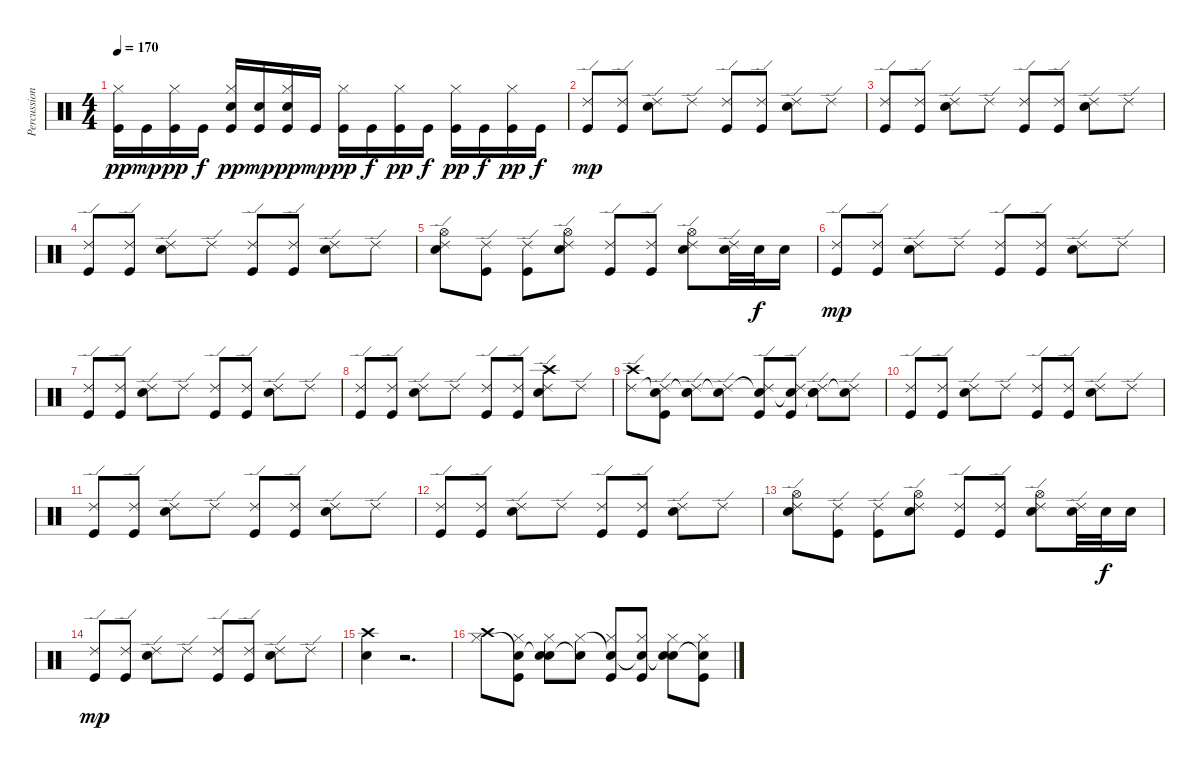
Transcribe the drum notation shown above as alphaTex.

\track ("Percussion" "Percussion") {instrument percussion}
\staff {score}
\articulation defaults
\ts (4 4)
\tempo 170
\clef neutral
\ks c
("Kick (hit)" "Hi-Hat (closed)").16{dy pp} "Kick (hit)".16{dy mp} ("Kick (hit)" "Hi-Hat (closed)").16{dy pp} "Kick (hit)".16{dy f} ("Kick (hit)" "Electric Snare (hit)" "Hi-Hat (closed)").16{dy pp} ("Kick (hit)" "Electric Snare (hit)").16{dy mp} ("Kick (hit)" "Electric Snare (hit)" "Hi-Hat (closed)").16{dy pp} "Kick (hit)".16{dy mp} ("Kick (hit)" "Hi-Hat (closed)").16{dy pp} "Kick (hit)".16{dy f} ("Kick (hit)" "Hi-Hat (closed)").16{dy pp} "Kick (hit)".16{dy f} ("Kick (hit)" "Hi-Hat (closed)").16{dy pp} "Kick (hit)".16{dy f} ("Kick (hit)" "Hi-Hat (closed)").16{dy pp} "Kick (hit)".16{dy f} |
("Kick (hit)" "Ride (edge) 2").8{dy mp} ("Kick (hit)" "Ride (edge) 2").8 ("Electric Snare (hit)" "Ride (edge) 2").8 "Ride (edge) 2".8 ("Kick (hit)" "Ride (edge) 2").8 ("Kick (hit)" "Ride (edge) 2").8 ("Electric Snare (hit)" "Ride (edge) 2").8 "Ride (edge) 2".8 |
("Kick (hit)" "Ride (edge) 2").8 ("Kick (hit)" "Ride (edge) 2").8 ("Electric Snare (hit)" "Ride (edge) 2").8 "Ride (edge) 2".8 ("Kick (hit)" "Ride (edge) 2").8 ("Kick (hit)" "Ride (edge) 2").8 ("Electric Snare (hit)" "Ride (edge) 2").8 "Ride (edge) 2".8 |
("Kick (hit)" "Ride (edge) 2").8 ("Kick (hit)" "Ride (edge) 2").8 ("Electric Snare (hit)" "Ride (edge) 2").8 "Ride (edge) 2".8 ("Kick (hit)" "Ride (edge) 2").8 ("Kick (hit)" "Ride (edge) 2").8 ("Electric Snare (hit)" "Ride (edge) 2").8 "Ride (edge) 2".8 |
("Hi-Hat (open)" "Electric Snare (hit)" "Ride (edge) 2").8 ("Kick (hit)" "Ride (edge) 2").8 ("Kick (hit)" "Ride (edge) 2").8 ("Hi-Hat (open)" "Electric Snare (hit)" "Ride (edge) 2").8 ("Kick (hit)" "Ride (edge) 2").8 ("Kick (hit)" "Ride (edge) 2").8 ("Hi-Hat (open)" "Electric Snare (hit)" "Ride (edge) 2").8 ("Electric Snare (hit)" "Ride (edge) 2").32 "Electric Snare (hit)".32{dy f} "Electric Snare (hit)".16 |
("Kick (hit)" "Ride (edge) 2").8{dy mp} ("Kick (hit)" "Ride (edge) 2").8 ("Electric Snare (hit)" "Ride (edge) 2").8 "Ride (edge) 2".8 ("Kick (hit)" "Ride (edge) 2").8 ("Kick (hit)" "Ride (edge) 2").8 ("Electric Snare (hit)" "Ride (edge) 2").8 "Ride (edge) 2".8 |
("Kick (hit)" "Ride (edge) 2").8 ("Kick (hit)" "Ride (edge) 2").8 ("Electric Snare (hit)" "Ride (edge) 2").8 "Ride (edge) 2".8 ("Kick (hit)" "Ride (edge) 2").8 ("Kick (hit)" "Ride (edge) 2").8 ("Electric Snare (hit)" "Ride (edge) 2").8 "Ride (edge) 2".8 |
("Kick (hit)" "Ride (edge) 2").8 ("Kick (hit)" "Ride (edge) 2").8 ("Electric Snare (hit)" "Ride (edge) 2").8 "Ride (edge) 2".8 ("Kick (hit)" "Ride (edge) 2").8 ("Kick (hit)" "Ride (edge) 2").8 ("Electric Snare (hit)" "Crash high (hit)" "Ride (edge) 2").8 "Ride (edge) 2".8 |
("Crash high (hit)" "Ride (edge) 2").8 ("Kick (hit)" "Snare (hit)"{t} "Ride (edge) 2").8 ("Electric Snare (hit)" "Snare (hit)"{t} "Ride (edge) 2").8 ("Snare (hit)"{t} "Ride (edge) 2").8 ("Kick (hit)" "Snare (hit)"{t} "Ride (edge) 2").8 ("Kick (hit)" "Snare (hit)"{t} "Ride (edge) 2").8 ("Electric Snare (hit)" "Snare (hit)"{t} "Ride (edge) 2").8 ("Snare (hit)"{t} "Ride (edge) 2").8 |
("Kick (hit)" "Ride (edge) 2").8 ("Kick (hit)" "Ride (edge) 2").8 ("Electric Snare (hit)" "Ride (edge) 2").8 "Ride (edge) 2".8 ("Kick (hit)" "Ride (edge) 2").8 ("Kick (hit)" "Ride (edge) 2").8 ("Electric Snare (hit)" "Ride (edge) 2").8 "Ride (edge) 2".8 |
("Kick (hit)" "Ride (edge) 2").8 ("Kick (hit)" "Ride (edge) 2").8 ("Electric Snare (hit)" "Ride (edge) 2").8 "Ride (edge) 2".8 ("Kick (hit)" "Ride (edge) 2").8 ("Kick (hit)" "Ride (edge) 2").8 ("Electric Snare (hit)" "Ride (edge) 2").8 "Ride (edge) 2".8 |
("Kick (hit)" "Ride (edge) 2").8 ("Kick (hit)" "Ride (edge) 2").8 ("Electric Snare (hit)" "Ride (edge) 2").8 "Ride (edge) 2".8 ("Kick (hit)" "Ride (edge) 2").8 ("Kick (hit)" "Ride (edge) 2").8 ("Electric Snare (hit)" "Ride (edge) 2").8 "Ride (edge) 2".8 |
("Hi-Hat (open)" "Electric Snare (hit)" "Ride (edge) 2").8 ("Kick (hit)" "Ride (edge) 2").8 ("Kick (hit)" "Ride (edge) 2").8 ("Hi-Hat (open)" "Electric Snare (hit)" "Ride (edge) 2").8 ("Kick (hit)" "Ride (edge) 2").8 ("Kick (hit)" "Ride (edge) 2").8 ("Hi-Hat (open)" "Electric Snare (hit)" "Ride (edge) 2").8 ("Electric Snare (hit)" "Ride (edge) 2").32 "Electric Snare (hit)".32{dy f} "Electric Snare (hit)".16 |
("Kick (hit)" "Ride (edge) 2").8{dy mp} ("Kick (hit)" "Ride (edge) 2").8 ("Electric Snare (hit)" "Ride (edge) 2").8 "Ride (edge) 2".8 ("Kick (hit)" "Ride (edge) 2").8 ("Kick (hit)" "Ride (edge) 2").8 ("Electric Snare (hit)" "Ride (edge) 2").8 "Ride (edge) 2".8 |
("Crash high (hit)" "Electric Snare (hit)").4 r.2{d} |
("Crash high (hit)" "Hi-Hat (closed)").8 ("Kick (hit)" "Snare (hit)"{t} "Hi-Hat (closed)").8 ("Electric Snare (hit)" "Snare (hit)"{t} "Hi-Hat (closed)").8 ("Snare (hit)"{t} "Hi-Hat (closed)").8 ("Kick (hit)" "Snare (hit)"{t} "Hi-Hat (closed)").8 ("Kick (hit)" "Snare (hit)"{t} "Hi-Hat (closed)").8 ("Electric Snare (hit)" "Snare (hit)"{t} "Hi-Hat (closed)").8 ("Kick (hit)" "Snare (hit)"{t} "Hi-Hat (closed)").8
